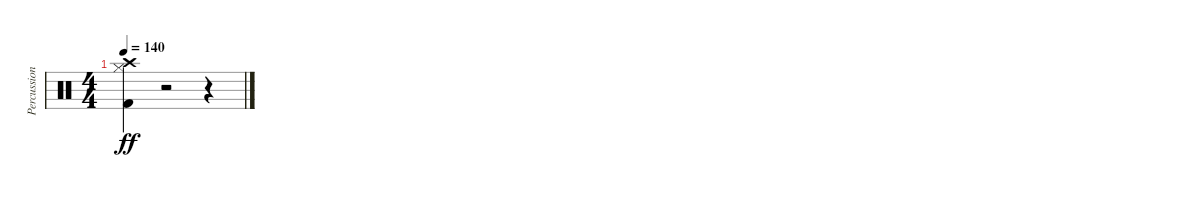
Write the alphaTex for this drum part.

\track ("Percussion" "Percussion") {instrument percussion}
\staff {score}
\articulation defaults
\ts (4 4)
\tempo 140
\clef neutral
\ks c
("Crash high (hit)" "Hi-Hat (closed)" "Kick (hit) 2").4{dy ff} r.2 r.4
